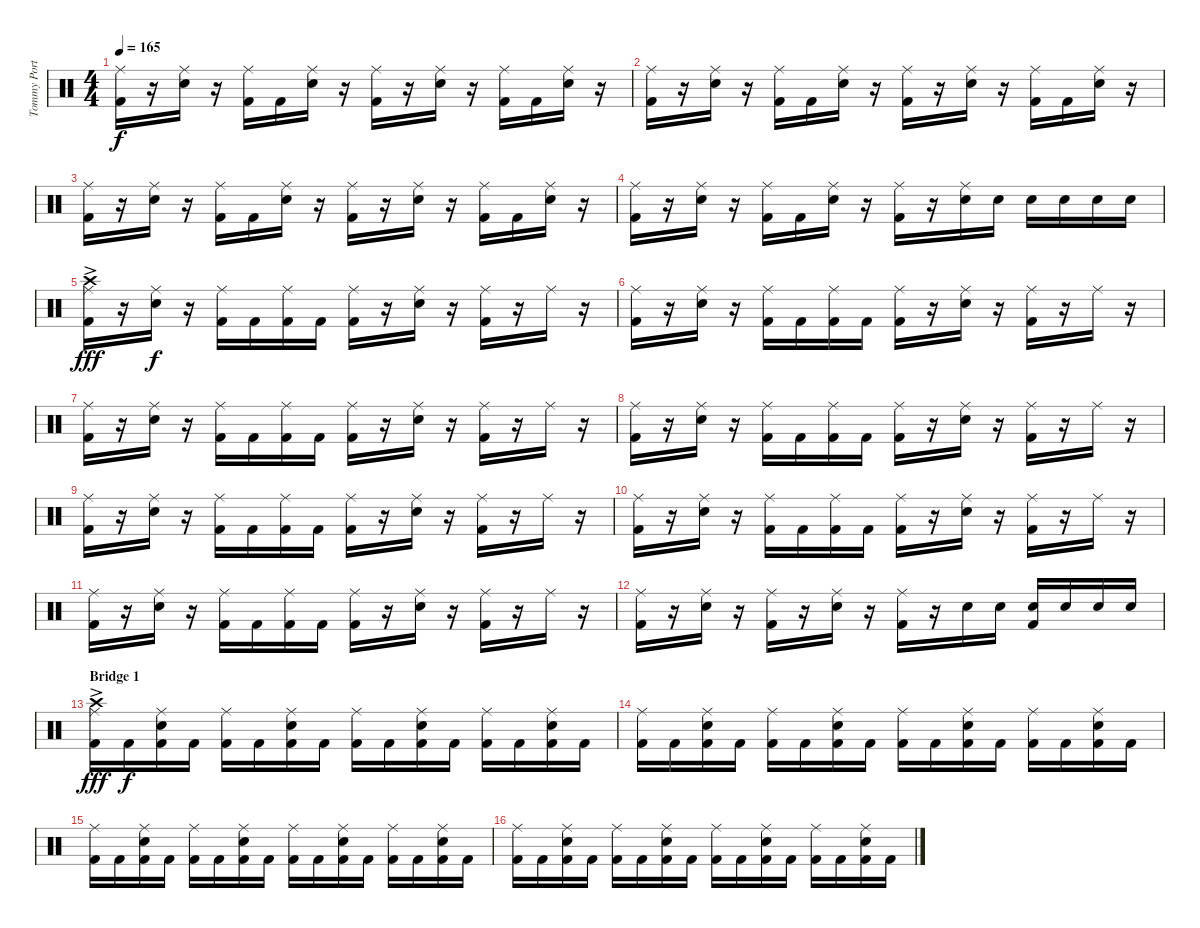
\track ("Tommy Portimo" "Tommy Port") {instrument percussion}
\staff {score}
\articulation defaults
\ts (4 4)
\tempo 165
\clef neutral
\ks aminor
("Ride (middle)" "Kick (hit) 2").16{dy f} r.16 ("Ride (middle)" "Electric Snare (hit)").16 r.16 ("Ride (middle)" "Kick (hit) 2").16 "Kick (hit) 2".16 ("Ride (middle)" "Electric Snare (hit)").16 r.16 ("Ride (middle)" "Kick (hit) 2").16 r.16 ("Ride (middle)" "Electric Snare (hit)").16 r.16 ("Ride (middle)" "Kick (hit) 2").16 "Kick (hit) 2".16 ("Ride (middle)" "Electric Snare (hit)").16 r.16 |
("Ride (middle)" "Kick (hit) 2").16 r.16 ("Ride (middle)" "Electric Snare (hit)").16 r.16 ("Ride (middle)" "Kick (hit) 2").16 "Kick (hit) 2".16 ("Ride (middle)" "Electric Snare (hit)").16 r.16 ("Ride (middle)" "Kick (hit) 2").16 r.16 ("Ride (middle)" "Electric Snare (hit)").16 r.16 ("Ride (middle)" "Kick (hit) 2").16 "Kick (hit) 2".16 ("Ride (middle)" "Electric Snare (hit)").16 r.16 |
("Ride (middle)" "Kick (hit) 2").16 r.16 ("Ride (middle)" "Electric Snare (hit)").16 r.16 ("Ride (middle)" "Kick (hit) 2").16 "Kick (hit) 2".16 ("Ride (middle)" "Electric Snare (hit)").16 r.16 ("Ride (middle)" "Kick (hit) 2").16 r.16 ("Ride (middle)" "Electric Snare (hit)").16 r.16 ("Ride (middle)" "Kick (hit) 2").16 "Kick (hit) 2".16 ("Ride (middle)" "Electric Snare (hit)").16 r.16 |
("Ride (middle)" "Kick (hit) 2").16 r.16 ("Ride (middle)" "Electric Snare (hit)").16 r.16 ("Ride (middle)" "Kick (hit) 2").16 "Kick (hit) 2".16 ("Ride (middle)" "Electric Snare (hit)").16 r.16 ("Ride (middle)" "Kick (hit) 2").16 r.16 ("Ride (middle)" "Electric Snare (hit)").16 "Electric Snare (hit)".16 "Electric Snare (hit)".16 "Electric Snare (hit)".16 "Electric Snare (hit)".16 "Electric Snare (hit)".16 |
("Crash high (hit)"{ac} "Ride (middle)" "Kick (hit) 2").16{dy fff} r.16 ("Ride (middle)" "Electric Snare (hit)").16{dy f} r.16 ("Ride (middle)" "Kick (hit) 2").16 "Kick (hit) 2".16 ("Ride (middle)" "Kick (hit) 2").16 "Kick (hit) 2".16 ("Ride (middle)" "Kick (hit) 2").16 r.16 ("Ride (middle)" "Electric Snare (hit)").16 r.16 ("Ride (middle)" "Kick (hit) 2").16 r.16 "Ride (middle)".16 r.16 |
("Ride (middle)" "Kick (hit) 2").16 r.16 ("Ride (middle)" "Electric Snare (hit)").16 r.16 ("Ride (middle)" "Kick (hit) 2").16 "Kick (hit) 2".16 ("Ride (middle)" "Kick (hit) 2").16 "Kick (hit) 2".16 ("Ride (middle)" "Kick (hit) 2").16 r.16 ("Ride (middle)" "Electric Snare (hit)").16 r.16 ("Ride (middle)" "Kick (hit) 2").16 r.16 "Ride (middle)".16 r.16 |
("Ride (middle)" "Kick (hit) 2").16 r.16 ("Ride (middle)" "Electric Snare (hit)").16 r.16 ("Ride (middle)" "Kick (hit) 2").16 "Kick (hit) 2".16 ("Ride (middle)" "Kick (hit) 2").16 "Kick (hit) 2".16 ("Ride (middle)" "Kick (hit) 2").16 r.16 ("Ride (middle)" "Electric Snare (hit)").16 r.16 ("Ride (middle)" "Kick (hit) 2").16 r.16 "Ride (middle)".16 r.16 |
("Ride (middle)" "Kick (hit) 2").16 r.16 ("Ride (middle)" "Electric Snare (hit)").16 r.16 ("Ride (middle)" "Kick (hit) 2").16 "Kick (hit) 2".16 ("Ride (middle)" "Kick (hit) 2").16 "Kick (hit) 2".16 ("Ride (middle)" "Kick (hit) 2").16 r.16 ("Ride (middle)" "Electric Snare (hit)").16 r.16 ("Ride (middle)" "Kick (hit) 2").16 r.16 "Ride (middle)".16 r.16 |
("Ride (middle)" "Kick (hit) 2").16 r.16 ("Ride (middle)" "Electric Snare (hit)").16 r.16 ("Ride (middle)" "Kick (hit) 2").16 "Kick (hit) 2".16 ("Ride (middle)" "Kick (hit) 2").16 "Kick (hit) 2".16 ("Ride (middle)" "Kick (hit) 2").16 r.16 ("Ride (middle)" "Electric Snare (hit)").16 r.16 ("Ride (middle)" "Kick (hit) 2").16 r.16 "Ride (middle)".16 r.16 |
("Ride (middle)" "Kick (hit) 2").16 r.16 ("Ride (middle)" "Electric Snare (hit)").16 r.16 ("Ride (middle)" "Kick (hit) 2").16 "Kick (hit) 2".16 ("Ride (middle)" "Kick (hit) 2").16 "Kick (hit) 2".16 ("Ride (middle)" "Kick (hit) 2").16 r.16 ("Ride (middle)" "Electric Snare (hit)").16 r.16 ("Ride (middle)" "Kick (hit) 2").16 r.16 "Ride (middle)".16 r.16 |
("Ride (middle)" "Kick (hit) 2").16 r.16 ("Ride (middle)" "Electric Snare (hit)").16 r.16 ("Ride (middle)" "Kick (hit) 2").16 "Kick (hit) 2".16 ("Ride (middle)" "Kick (hit) 2").16 "Kick (hit) 2".16 ("Ride (middle)" "Kick (hit) 2").16 r.16 ("Ride (middle)" "Electric Snare (hit)").16 r.16 ("Ride (middle)" "Kick (hit) 2").16 r.16 "Ride (middle)".16 r.16 |
("Ride (middle)" "Kick (hit) 2").16 r.16 ("Ride (middle)" "Electric Snare (hit)").16 r.16 ("Ride (middle)" "Kick (hit) 2").16 r.16 ("Ride (middle)" "Electric Snare (hit)").16 r.16 ("Ride (middle)" "Kick (hit) 2").16 r.16 "Electric Snare (hit)".16 "Electric Snare (hit)".16 ("Electric Snare (hit)" "Kick (hit) 2").16 "Electric Snare (hit)".16 "Electric Snare (hit)".16 "Electric Snare (hit)".16 |
\section ("" "Bridge 1")
("Crash high (hit)"{ac} "Ride (middle)" "Kick (hit) 2").16{dy fff} "Kick (hit) 2".16{dy f} ("Ride (middle)" "Electric Snare (hit)" "Kick (hit) 2").16 "Kick (hit) 2".16 ("Ride (middle)" "Kick (hit) 2").16 "Kick (hit) 2".16 ("Ride (middle)" "Electric Snare (hit)" "Kick (hit) 2").16 "Kick (hit) 2".16 ("Ride (middle)" "Kick (hit) 2").16 "Kick (hit) 2".16 ("Ride (middle)" "Electric Snare (hit)" "Kick (hit) 2").16 "Kick (hit) 2".16 ("Ride (middle)" "Kick (hit) 2").16 "Kick (hit) 2".16 ("Ride (middle)" "Electric Snare (hit)" "Kick (hit) 2").16 "Kick (hit) 2".16 |
("Ride (middle)" "Kick (hit) 2").16 "Kick (hit) 2".16 ("Ride (middle)" "Electric Snare (hit)" "Kick (hit) 2").16 "Kick (hit) 2".16 ("Ride (middle)" "Kick (hit) 2").16 "Kick (hit) 2".16 ("Ride (middle)" "Electric Snare (hit)" "Kick (hit) 2").16 "Kick (hit) 2".16 ("Ride (middle)" "Kick (hit) 2").16 "Kick (hit) 2".16 ("Ride (middle)" "Electric Snare (hit)" "Kick (hit) 2").16 "Kick (hit) 2".16 ("Ride (middle)" "Kick (hit) 2").16 "Kick (hit) 2".16 ("Ride (middle)" "Electric Snare (hit)" "Kick (hit) 2").16 "Kick (hit) 2".16 |
("Ride (middle)" "Kick (hit) 2").16 "Kick (hit) 2".16 ("Ride (middle)" "Electric Snare (hit)" "Kick (hit) 2").16 "Kick (hit) 2".16 ("Ride (middle)" "Kick (hit) 2").16 "Kick (hit) 2".16 ("Ride (middle)" "Electric Snare (hit)" "Kick (hit) 2").16 "Kick (hit) 2".16 ("Ride (middle)" "Kick (hit) 2").16 "Kick (hit) 2".16 ("Ride (middle)" "Electric Snare (hit)" "Kick (hit) 2").16 "Kick (hit) 2".16 ("Ride (middle)" "Kick (hit) 2").16 "Kick (hit) 2".16 ("Ride (middle)" "Electric Snare (hit)" "Kick (hit) 2").16 "Kick (hit) 2".16 |
("Ride (middle)" "Kick (hit) 2").16 "Kick (hit) 2".16 ("Ride (middle)" "Electric Snare (hit)" "Kick (hit) 2").16 "Kick (hit) 2".16 ("Ride (middle)" "Kick (hit) 2").16 "Kick (hit) 2".16 ("Ride (middle)" "Electric Snare (hit)" "Kick (hit) 2").16 "Kick (hit) 2".16 ("Ride (middle)" "Kick (hit) 2").16 "Kick (hit) 2".16 ("Ride (middle)" "Electric Snare (hit)" "Kick (hit) 2").16 "Kick (hit) 2".16 ("Ride (middle)" "Kick (hit) 2").16 "Kick (hit) 2".16 ("Ride (middle)" "Electric Snare (hit)" "Kick (hit) 2").16 "Kick (hit) 2".16
